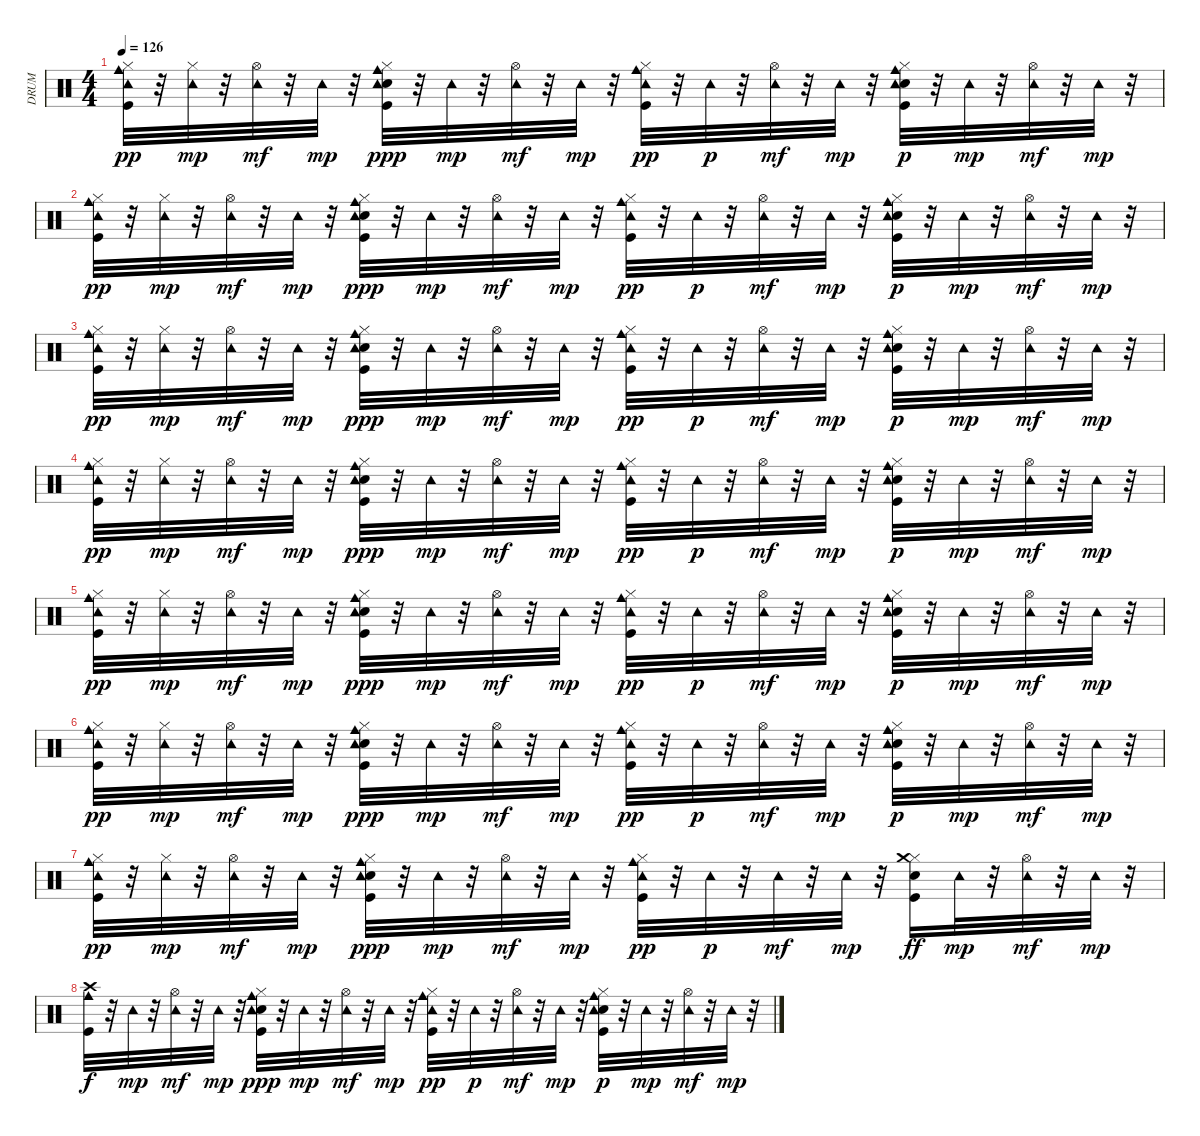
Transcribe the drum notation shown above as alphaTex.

\track ("DRUM" "DRUM") {instrument percussion}
\staff {score}
\articulation defaults
\ts (4 4)
\tempo 126
\clef neutral
\ks c
("Kick (hit)" "Hi-Hat (closed)" "Tambourine (hit)" "Cowbell medium (hit)").32{dy pp} r.32 ("Hi-Hat (closed)" "Tambourine (hit)").32{dy mp} r.32 ("Hi-Hat (open)" "Tambourine (hit)").32{dy mf} r.32 "Tambourine (hit)".32{dy mp} r.32 ("Kick (hit)" "Electric Snare (hit)" "Hi-Hat (closed)" "Tambourine (hit)" "Cowbell medium (hit)").32{dy ppp} r.32 "Tambourine (hit)".32{dy mp} r.32 ("Hi-Hat (open)" "Tambourine (hit)").32{dy mf} r.32 "Tambourine (hit)".32{dy mp} r.32 ("Kick (hit)" "Hi-Hat (closed)" "Tambourine (hit)" "Cowbell medium (hit)").32{dy pp} r.32 "Tambourine (hit)".32{dy p} r.32 ("Hi-Hat (open)" "Tambourine (hit)").32{dy mf} r.32 "Tambourine (hit)".32{dy mp} r.32 ("Kick (hit)" "Electric Snare (hit)" "Hi-Hat (closed)" "Tambourine (hit)" "Cowbell medium (hit)").32{dy p} r.32 "Tambourine (hit)".32{dy mp} r.32 ("Hi-Hat (open)" "Tambourine (hit)").32{dy mf} r.32 "Tambourine (hit)".32{dy mp} r.32 |
("Kick (hit)" "Hi-Hat (closed)" "Tambourine (hit)" "Cowbell medium (hit)").32{dy pp} r.32 ("Hi-Hat (closed)" "Tambourine (hit)").32{dy mp} r.32 ("Hi-Hat (open)" "Tambourine (hit)").32{dy mf} r.32 "Tambourine (hit)".32{dy mp} r.32 ("Kick (hit)" "Electric Snare (hit)" "Hi-Hat (closed)" "Tambourine (hit)" "Cowbell medium (hit)").32{dy ppp} r.32 "Tambourine (hit)".32{dy mp} r.32 ("Hi-Hat (open)" "Tambourine (hit)").32{dy mf} r.32 "Tambourine (hit)".32{dy mp} r.32 ("Kick (hit)" "Hi-Hat (closed)" "Tambourine (hit)" "Cowbell medium (hit)").32{dy pp} r.32 "Tambourine (hit)".32{dy p} r.32 ("Hi-Hat (open)" "Tambourine (hit)").32{dy mf} r.32 "Tambourine (hit)".32{dy mp} r.32 ("Kick (hit)" "Electric Snare (hit)" "Hi-Hat (closed)" "Tambourine (hit)" "Cowbell medium (hit)").32{dy p} r.32 "Tambourine (hit)".32{dy mp} r.32 ("Hi-Hat (open)" "Tambourine (hit)").32{dy mf} r.32 "Tambourine (hit)".32{dy mp} r.32 |
("Kick (hit)" "Hi-Hat (closed)" "Tambourine (hit)" "Cowbell medium (hit)").32{dy pp} r.32 ("Hi-Hat (closed)" "Tambourine (hit)").32{dy mp} r.32 ("Hi-Hat (open)" "Tambourine (hit)").32{dy mf} r.32 "Tambourine (hit)".32{dy mp} r.32 ("Kick (hit)" "Electric Snare (hit)" "Hi-Hat (closed)" "Tambourine (hit)" "Cowbell medium (hit)").32{dy ppp} r.32 "Tambourine (hit)".32{dy mp} r.32 ("Hi-Hat (open)" "Tambourine (hit)").32{dy mf} r.32 "Tambourine (hit)".32{dy mp} r.32 ("Kick (hit)" "Hi-Hat (closed)" "Tambourine (hit)" "Cowbell medium (hit)").32{dy pp} r.32 "Tambourine (hit)".32{dy p} r.32 ("Hi-Hat (open)" "Tambourine (hit)").32{dy mf} r.32 "Tambourine (hit)".32{dy mp} r.32 ("Kick (hit)" "Electric Snare (hit)" "Hi-Hat (closed)" "Tambourine (hit)" "Cowbell medium (hit)").32{dy p} r.32 "Tambourine (hit)".32{dy mp} r.32 ("Hi-Hat (open)" "Tambourine (hit)").32{dy mf} r.32 "Tambourine (hit)".32{dy mp} r.32 |
("Kick (hit)" "Hi-Hat (closed)" "Tambourine (hit)" "Cowbell medium (hit)").32{dy pp} r.32 ("Hi-Hat (closed)" "Tambourine (hit)").32{dy mp} r.32 ("Hi-Hat (open)" "Tambourine (hit)").32{dy mf} r.32 "Tambourine (hit)".32{dy mp} r.32 ("Kick (hit)" "Electric Snare (hit)" "Hi-Hat (closed)" "Tambourine (hit)" "Cowbell medium (hit)").32{dy ppp} r.32 "Tambourine (hit)".32{dy mp} r.32 ("Hi-Hat (open)" "Tambourine (hit)").32{dy mf} r.32 "Tambourine (hit)".32{dy mp} r.32 ("Kick (hit)" "Hi-Hat (closed)" "Tambourine (hit)" "Cowbell medium (hit)").32{dy pp} r.32 "Tambourine (hit)".32{dy p} r.32 ("Hi-Hat (open)" "Tambourine (hit)").32{dy mf} r.32 "Tambourine (hit)".32{dy mp} r.32 ("Kick (hit)" "Electric Snare (hit)" "Hi-Hat (closed)" "Tambourine (hit)" "Cowbell medium (hit)").32{dy p} r.32 "Tambourine (hit)".32{dy mp} r.32 ("Hi-Hat (open)" "Tambourine (hit)").32{dy mf} r.32 "Tambourine (hit)".32{dy mp} r.32 |
("Kick (hit)" "Hi-Hat (closed)" "Tambourine (hit)" "Cowbell medium (hit)").32{dy pp} r.32 ("Hi-Hat (closed)" "Tambourine (hit)").32{dy mp} r.32 ("Hi-Hat (open)" "Tambourine (hit)").32{dy mf} r.32 "Tambourine (hit)".32{dy mp} r.32 ("Kick (hit)" "Electric Snare (hit)" "Hi-Hat (closed)" "Tambourine (hit)" "Cowbell medium (hit)").32{dy ppp} r.32 "Tambourine (hit)".32{dy mp} r.32 ("Hi-Hat (open)" "Tambourine (hit)").32{dy mf} r.32 "Tambourine (hit)".32{dy mp} r.32 ("Kick (hit)" "Hi-Hat (closed)" "Tambourine (hit)" "Cowbell medium (hit)").32{dy pp} r.32 "Tambourine (hit)".32{dy p} r.32 ("Hi-Hat (open)" "Tambourine (hit)").32{dy mf} r.32 "Tambourine (hit)".32{dy mp} r.32 ("Kick (hit)" "Electric Snare (hit)" "Hi-Hat (closed)" "Tambourine (hit)" "Cowbell medium (hit)").32{dy p} r.32 "Tambourine (hit)".32{dy mp} r.32 ("Hi-Hat (open)" "Tambourine (hit)").32{dy mf} r.32 "Tambourine (hit)".32{dy mp} r.32 |
("Kick (hit)" "Hi-Hat (closed)" "Tambourine (hit)" "Cowbell medium (hit)").32{dy pp} r.32 ("Hi-Hat (closed)" "Tambourine (hit)").32{dy mp} r.32 ("Hi-Hat (open)" "Tambourine (hit)").32{dy mf} r.32 "Tambourine (hit)".32{dy mp} r.32 ("Kick (hit)" "Electric Snare (hit)" "Hi-Hat (closed)" "Tambourine (hit)" "Cowbell medium (hit)").32{dy ppp} r.32 "Tambourine (hit)".32{dy mp} r.32 ("Hi-Hat (open)" "Tambourine (hit)").32{dy mf} r.32 "Tambourine (hit)".32{dy mp} r.32 ("Kick (hit)" "Hi-Hat (closed)" "Tambourine (hit)" "Cowbell medium (hit)").32{dy pp} r.32 "Tambourine (hit)".32{dy p} r.32 ("Hi-Hat (open)" "Tambourine (hit)").32{dy mf} r.32 "Tambourine (hit)".32{dy mp} r.32 ("Kick (hit)" "Electric Snare (hit)" "Hi-Hat (closed)" "Tambourine (hit)" "Cowbell medium (hit)").32{dy p} r.32 "Tambourine (hit)".32{dy mp} r.32 ("Hi-Hat (open)" "Tambourine (hit)").32{dy mf} r.32 "Tambourine (hit)".32{dy mp} r.32 |
("Kick (hit)" "Hi-Hat (closed)" "Tambourine (hit)" "Cowbell medium (hit)").32{dy pp} r.32 ("Hi-Hat (closed)" "Tambourine (hit)").32{dy mp} r.32 ("Hi-Hat (open)" "Tambourine (hit)").32{dy mf} r.32 "Tambourine (hit)".32{dy mp} r.32 ("Kick (hit)" "Electric Snare (hit)" "Hi-Hat (closed)" "Tambourine (hit)" "Cowbell medium (hit)").32{dy ppp} r.32 "Tambourine (hit)".32{dy mp} r.32 ("Hi-Hat (open)" "Tambourine (hit)").32{dy mf} r.32 "Tambourine (hit)".32{dy mp} r.32 ("Kick (hit)" "Hi-Hat (closed)" "Tambourine (hit)" "Cowbell medium (hit)").32{dy pp} r.32 "Tambourine (hit)".32{dy p} r.32 "Tambourine (hit)".32{dy mf} r.32 "Tambourine (hit)".32{dy mp} r.32 ("Kick (hit)" "Electric Snare (hit)" "Hi-Hat (closed)" "Crash medium (hit)").16{dy ff} "Tambourine (hit)".32{dy mp} r.32 ("Hi-Hat (open)" "Tambourine (hit)").32{dy mf} r.32 "Tambourine (hit)".32{dy mp} r.32 |
("Kick (hit)" "Crash high (hit)" "Cowbell medium (hit)").32{dy f} r.32 "Tambourine (hit)".32{dy mp} r.32 ("Hi-Hat (open)" "Tambourine (hit)").32{dy mf} r.32 "Tambourine (hit)".32{dy mp} r.32 ("Kick (hit)" "Electric Snare (hit)" "Hi-Hat (closed)" "Tambourine (hit)" "Cowbell medium (hit)").32{dy ppp} r.32 "Tambourine (hit)".32{dy mp} r.32 ("Hi-Hat (open)" "Tambourine (hit)").32{dy mf} r.32 "Tambourine (hit)".32{dy mp} r.32 ("Kick (hit)" "Hi-Hat (closed)" "Tambourine (hit)" "Cowbell medium (hit)").32{dy pp} r.32 "Tambourine (hit)".32{dy p} r.32 ("Hi-Hat (open)" "Tambourine (hit)").32{dy mf} r.32 "Tambourine (hit)".32{dy mp} r.32 ("Kick (hit)" "Electric Snare (hit)" "Hi-Hat (closed)" "Tambourine (hit)" "Cowbell medium (hit)").32{dy p} r.32 "Tambourine (hit)".32{dy mp} r.32 ("Hi-Hat (open)" "Tambourine (hit)").32{dy mf} r.32 "Tambourine (hit)".32{dy mp} r.32
